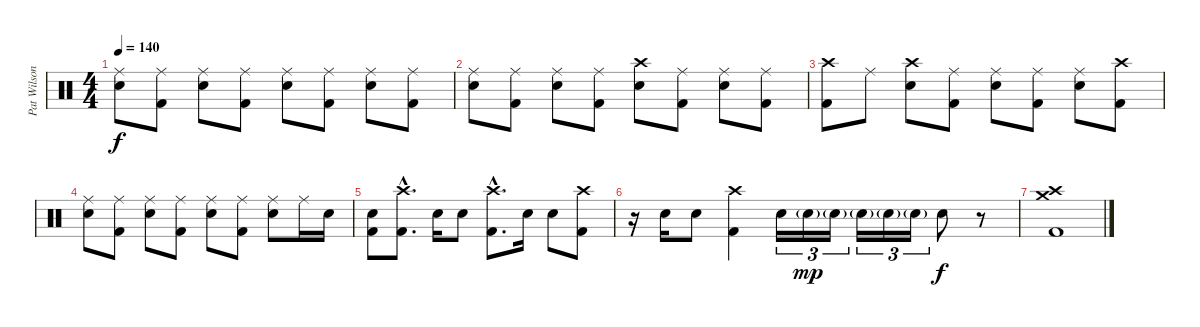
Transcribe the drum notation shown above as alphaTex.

\track ("Pat Wilson - Drums" "Pat Wilson") {instrument percussion}
\staff {score}
\articulation defaults
\ts (4 4)
\tempo 140
\clef neutral
\ks c
("Ride (middle)" "Electric Snare (hit)").8{dy f} ("Ride (middle)" "Kick (hit) 2").8 ("Ride (middle)" "Electric Snare (hit)").8 ("Ride (middle)" "Kick (hit) 2").8 ("Ride (middle)" "Electric Snare (hit)").8 ("Ride (middle)" "Kick (hit) 2").8 ("Ride (middle)" "Electric Snare (hit)").8 ("Ride (middle)" "Kick (hit) 2").8 |
("Ride (middle)" "Electric Snare (hit)").8 ("Ride (middle)" "Kick (hit) 2").8 ("Ride (middle)" "Electric Snare (hit)").8 ("Ride (middle)" "Kick (hit) 2").8 ("Crash high (hit)" "Electric Snare (hit)").8 ("Ride (middle)" "Kick (hit) 2").8 ("Ride (middle)" "Electric Snare (hit)").8 ("Ride (middle)" "Kick (hit) 2").8 |
("Crash high (hit)" "Kick (hit) 2").8 "Ride (middle)".8 ("Crash high (hit)" "Electric Snare (hit)").8 ("Ride (middle)" "Kick (hit) 2").8 ("Ride (middle)" "Electric Snare (hit)").8 ("Ride (middle)" "Kick (hit) 2").8 ("Ride (middle)" "Electric Snare (hit)").8 ("Crash high (hit)" "Kick (hit) 2").8 |
("Ride (middle)" "Electric Snare (hit)").8 ("Ride (middle)" "Kick (hit) 2").8 ("Ride (middle)" "Electric Snare (hit)").8 ("Ride (middle)" "Kick (hit) 2").8 ("Ride (middle)" "Electric Snare (hit)").8 ("Ride (middle)" "Kick (hit) 2").8 ("Ride (middle)" "Electric Snare (hit)").8 "Ride (middle)".16 "Electric Snare (hit)".16 |
("Electric Snare (hit)" "Kick (hit) 2").8 ("Crash high (hit)"{hac} "Kick (hit) 2"{hac}).8{d} "Electric Snare (hit)".16 "Electric Snare (hit)".8 ("Crash high (hit)"{hac} "Kick (hit) 2"{hac}).8{d} "Electric Snare (hit)".16 "Electric Snare (hit)".8 ("Crash high (hit)" "Kick (hit) 2").8 |
r.16 "Electric Snare (hit)".16 "Electric Snare (hit)".8 ("Crash high (hit)" "Kick (hit) 2").4 "Electric Snare (hit)".16{tu (3 2)} "Electric Snare (hit)"{g}.16{tu (3 2) dy mp} "Electric Snare (hit)"{g}.16{tu (3 2)} "Electric Snare (hit)"{g}.16{tu (3 2)} "Electric Snare (hit)"{g}.16{tu (3 2)} "Electric Snare (hit)"{g}.16{tu (3 2)} "Electric Snare (hit)".8{dy f} r.8 |
("Crash medium (hit)" "Crash high (hit)" "Kick (hit) 2").1
